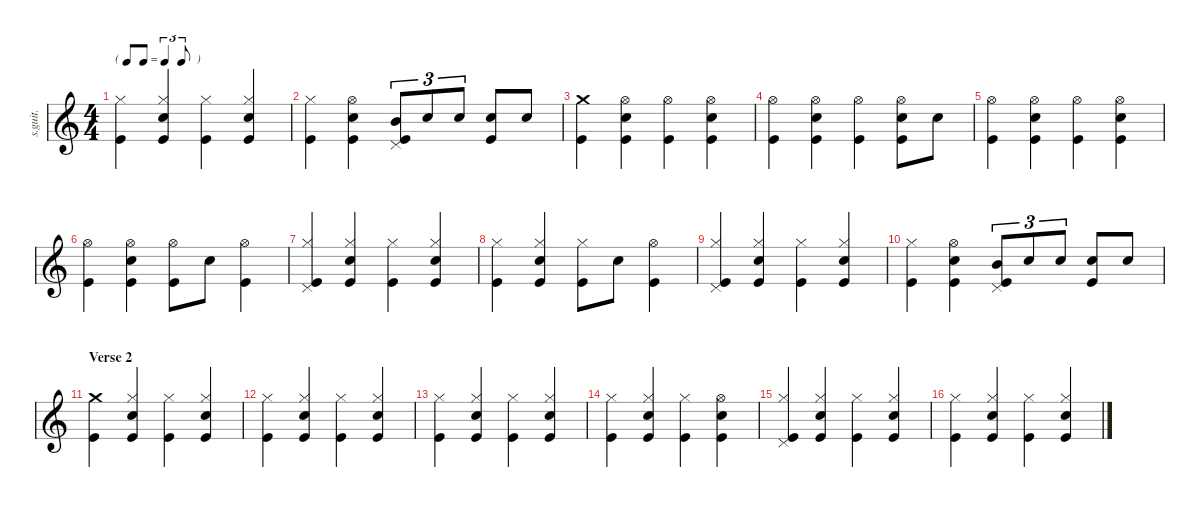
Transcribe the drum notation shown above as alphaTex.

\defaultSystemsLayout 4
\hideDynamics
\bracketExtendMode nobrackets
\track ("Dave Grohl" "s.guit.") {instrument percussion}
\staff {score}
\articulation defaults
\ts (4 4)
\tf triplet8th
\tempo (171 hide)
\clef g2
\ks c
("Kick (hit)" "Hi-Hat (closed)").4{lyrics (0 "") lyrics (1 "") lyrics (2 "") lyrics (3 "") lyrics (4 "") dy mf} ("Kick (hit)" "Snare (hit) 2" "Hi-Hat (closed)").4{lyrics (0 "") lyrics (1 "") lyrics (2 "") lyrics (3 "") lyrics (4 "")} ("Kick (hit)" "Hi-Hat (closed)").4{lyrics (0 "") lyrics (1 "") lyrics (2 "") lyrics (3 "") lyrics (4 "")} ("Kick (hit)" "Snare (hit) 2" "Hi-Hat (closed)").4{lyrics (0 "") lyrics (1 "") lyrics (2 "") lyrics (3 "") lyrics (4 "")} |
("Kick (hit)" "Hi-Hat (closed)").4{lyrics (0 "") lyrics (1 "") lyrics (2 "") lyrics (3 "") lyrics (4 "")} ("Kick (hit)" "Snare (hit) 2" "Hi-Hat (open)").4{lyrics (0 "") lyrics (1 "") lyrics (2 "") lyrics (3 "") lyrics (4 "")} ("Kick (hit)" "Pedal Hi-Hat (hit)" "Mid Tom (hit)").8{tu (3 2) lyrics (0 "") lyrics (1 "") lyrics (2 "") lyrics (3 "") lyrics (4 "")} "Snare (hit) 2".8{tu (3 2) lyrics (0 "") lyrics (1 "") lyrics (2 "") lyrics (3 "") lyrics (4 "")} "Snare (hit) 2".8{tu (3 2) lyrics (0 "") lyrics (1 "") lyrics (2 "") lyrics (3 "") lyrics (4 "")} ("Kick (hit)" "Snare (hit) 2").8{lyrics (0 "") lyrics (1 "") lyrics (2 "") lyrics (3 "") lyrics (4 "")} "Snare (hit) 2".8{lyrics (0 "") lyrics (1 "") lyrics (2 "") lyrics (3 "") lyrics (4 "")} |
("Kick (hit)" "Crash medium (hit)").4{lyrics (0 "") lyrics (1 "") lyrics (2 "") lyrics (3 "") lyrics (4 "")} ("Kick (hit)" "Snare (hit) 2" "Hi-Hat (open)").4{lyrics (0 "") lyrics (1 "") lyrics (2 "") lyrics (3 "") lyrics (4 "")} ("Kick (hit)" "Hi-Hat (open)").4{lyrics (0 "") lyrics (1 "") lyrics (2 "") lyrics (3 "") lyrics (4 "")} ("Kick (hit)" "Snare (hit) 2" "Hi-Hat (open)").4{lyrics (0 "") lyrics (1 "") lyrics (2 "") lyrics (3 "") lyrics (4 "")} |
("Kick (hit)" "Hi-Hat (open)").4{lyrics (0 "") lyrics (1 "") lyrics (2 "") lyrics (3 "") lyrics (4 "")} ("Kick (hit)" "Snare (hit) 2" "Hi-Hat (open)").4{lyrics (0 "") lyrics (1 "") lyrics (2 "") lyrics (3 "") lyrics (4 "")} ("Kick (hit)" "Hi-Hat (open)").4{lyrics (0 "") lyrics (1 "") lyrics (2 "") lyrics (3 "") lyrics (4 "")} ("Kick (hit)" "Snare (hit) 2" "Hi-Hat (open)").8{lyrics (0 "") lyrics (1 "") lyrics (2 "") lyrics (3 "") lyrics (4 "")} "Snare (hit) 2".8{lyrics (0 "") lyrics (1 "") lyrics (2 "") lyrics (3 "") lyrics (4 "")} |
("Kick (hit)" "Hi-Hat (open)").4{lyrics (0 "") lyrics (1 "") lyrics (2 "") lyrics (3 "") lyrics (4 "")} ("Kick (hit)" "Snare (hit) 2" "Hi-Hat (open)").4{lyrics (0 "") lyrics (1 "") lyrics (2 "") lyrics (3 "") lyrics (4 "")} ("Kick (hit)" "Hi-Hat (open)").4{lyrics (0 "") lyrics (1 "") lyrics (2 "") lyrics (3 "") lyrics (4 "")} ("Kick (hit)" "Snare (hit) 2" "Hi-Hat (open)").4{lyrics (0 "") lyrics (1 "") lyrics (2 "") lyrics (3 "") lyrics (4 "")} |
("Kick (hit)" "Hi-Hat (open)").4{lyrics (0 "") lyrics (1 "") lyrics (2 "") lyrics (3 "") lyrics (4 "")} ("Kick (hit)" "Snare (hit) 2" "Hi-Hat (open)").4{lyrics (0 "") lyrics (1 "") lyrics (2 "") lyrics (3 "") lyrics (4 "")} ("Kick (hit)" "Hi-Hat (open)").8{lyrics (0 "") lyrics (1 "") lyrics (2 "") lyrics (3 "") lyrics (4 "")} "Snare (hit) 2".8{lyrics (0 "") lyrics (1 "") lyrics (2 "") lyrics (3 "") lyrics (4 "")} ("Kick (hit)" "Hi-Hat (open)").4{lyrics (0 "") lyrics (1 "") lyrics (2 "") lyrics (3 "") lyrics (4 "")} |
("Kick (hit)" "Hi-Hat (closed)" "Pedal Hi-Hat (hit)").4{lyrics (0 "") lyrics (1 "") lyrics (2 "") lyrics (3 "") lyrics (4 "")} ("Kick (hit)" "Snare (hit) 2" "Hi-Hat (closed)").4{lyrics (0 "") lyrics (1 "") lyrics (2 "") lyrics (3 "") lyrics (4 "")} ("Kick (hit)" "Hi-Hat (closed)").4{lyrics (0 "") lyrics (1 "") lyrics (2 "") lyrics (3 "") lyrics (4 "")} ("Kick (hit)" "Snare (hit) 2" "Hi-Hat (closed)").4{lyrics (0 "") lyrics (1 "") lyrics (2 "") lyrics (3 "") lyrics (4 "")} |
("Kick (hit)" "Hi-Hat (closed)").4{lyrics (0 "") lyrics (1 "") lyrics (2 "") lyrics (3 "") lyrics (4 "")} ("Kick (hit)" "Snare (hit) 2" "Hi-Hat (closed)").4{lyrics (0 "") lyrics (1 "") lyrics (2 "") lyrics (3 "") lyrics (4 "")} ("Kick (hit)" "Hi-Hat (closed)").8{lyrics (0 "") lyrics (1 "") lyrics (2 "") lyrics (3 "") lyrics (4 "")} "Snare (hit) 2".8{lyrics (0 "") lyrics (1 "") lyrics (2 "") lyrics (3 "") lyrics (4 "")} ("Kick (hit)" "Hi-Hat (open)").4{lyrics (0 "") lyrics (1 "") lyrics (2 "") lyrics (3 "") lyrics (4 "")} |
("Kick (hit)" "Hi-Hat (closed)" "Pedal Hi-Hat (hit)").4{lyrics (0 "") lyrics (1 "") lyrics (2 "") lyrics (3 "") lyrics (4 "")} ("Kick (hit)" "Snare (hit) 2" "Hi-Hat (closed)").4{lyrics (0 "") lyrics (1 "") lyrics (2 "") lyrics (3 "") lyrics (4 "")} ("Kick (hit)" "Hi-Hat (closed)").4{lyrics (0 "") lyrics (1 "") lyrics (2 "") lyrics (3 "") lyrics (4 "")} ("Kick (hit)" "Snare (hit) 2" "Hi-Hat (closed)").4{lyrics (0 "") lyrics (1 "") lyrics (2 "") lyrics (3 "") lyrics (4 "")} |
("Kick (hit)" "Hi-Hat (closed)").4{lyrics (0 "") lyrics (1 "") lyrics (2 "") lyrics (3 "") lyrics (4 "")} ("Kick (hit)" "Snare (hit) 2" "Hi-Hat (open)").4{lyrics (0 "") lyrics (1 "") lyrics (2 "") lyrics (3 "") lyrics (4 "")} ("Kick (hit)" "Pedal Hi-Hat (hit)" "Mid Tom (hit)").8{tu (3 2) lyrics (0 "") lyrics (1 "") lyrics (2 "") lyrics (3 "") lyrics (4 "")} "Snare (hit) 2".8{tu (3 2) lyrics (0 "") lyrics (1 "") lyrics (2 "") lyrics (3 "") lyrics (4 "")} "Snare (hit) 2".8{tu (3 2) lyrics (0 "") lyrics (1 "") lyrics (2 "") lyrics (3 "") lyrics (4 "")} ("Kick (hit)" "Snare (hit) 2").8{lyrics (0 "") lyrics (1 "") lyrics (2 "") lyrics (3 "") lyrics (4 "")} "Snare (hit) 2".8{lyrics (0 "") lyrics (1 "") lyrics (2 "") lyrics (3 "") lyrics (4 "")} |
\section ("" "Verse 2")
("Kick (hit)" "Crash medium (hit)").4{lyrics (0 "") lyrics (1 "") lyrics (2 "") lyrics (3 "") lyrics (4 "")} ("Kick (hit)" "Snare (hit) 2" "Hi-Hat (closed)").4{lyrics (0 "") lyrics (1 "") lyrics (2 "") lyrics (3 "") lyrics (4 "")} ("Kick (hit)" "Hi-Hat (closed)").4{lyrics (0 "") lyrics (1 "") lyrics (2 "") lyrics (3 "") lyrics (4 "")} ("Kick (hit)" "Snare (hit) 2" "Hi-Hat (closed)").4{lyrics (0 "") lyrics (1 "") lyrics (2 "") lyrics (3 "") lyrics (4 "")} |
("Kick (hit)" "Hi-Hat (closed)").4{lyrics (0 "") lyrics (1 "") lyrics (2 "") lyrics (3 "") lyrics (4 "")} ("Kick (hit)" "Snare (hit) 2" "Hi-Hat (closed)").4{lyrics (0 "") lyrics (1 "") lyrics (2 "") lyrics (3 "") lyrics (4 "")} ("Kick (hit)" "Hi-Hat (closed)").4{lyrics (0 "") lyrics (1 "") lyrics (2 "") lyrics (3 "") lyrics (4 "")} ("Kick (hit)" "Snare (hit) 2" "Hi-Hat (closed)").4{lyrics (0 "") lyrics (1 "") lyrics (2 "") lyrics (3 "") lyrics (4 "")} |
("Kick (hit)" "Hi-Hat (closed)").4{lyrics (0 "") lyrics (1 "") lyrics (2 "") lyrics (3 "") lyrics (4 "")} ("Kick (hit)" "Snare (hit) 2" "Hi-Hat (closed)").4{lyrics (0 "") lyrics (1 "") lyrics (2 "") lyrics (3 "") lyrics (4 "")} ("Kick (hit)" "Hi-Hat (closed)").4{lyrics (0 "") lyrics (1 "") lyrics (2 "") lyrics (3 "") lyrics (4 "")} ("Kick (hit)" "Snare (hit) 2" "Hi-Hat (closed)").4{lyrics (0 "") lyrics (1 "") lyrics (2 "") lyrics (3 "") lyrics (4 "")} |
("Kick (hit)" "Hi-Hat (closed)").4{lyrics (0 "") lyrics (1 "") lyrics (2 "") lyrics (3 "") lyrics (4 "")} ("Kick (hit)" "Snare (hit) 2" "Hi-Hat (closed)").4{lyrics (0 "") lyrics (1 "") lyrics (2 "") lyrics (3 "") lyrics (4 "")} ("Kick (hit)" "Hi-Hat (closed)").4{lyrics (0 "") lyrics (1 "") lyrics (2 "") lyrics (3 "") lyrics (4 "")} ("Kick (hit)" "Snare (hit) 2" "Hi-Hat (open)").4{lyrics (0 "") lyrics (1 "") lyrics (2 "") lyrics (3 "") lyrics (4 "")} |
("Kick (hit)" "Hi-Hat (closed)" "Pedal Hi-Hat (hit)").4{lyrics (0 "") lyrics (1 "") lyrics (2 "") lyrics (3 "") lyrics (4 "")} ("Kick (hit)" "Snare (hit) 2" "Hi-Hat (closed)").4{lyrics (0 "") lyrics (1 "") lyrics (2 "") lyrics (3 "") lyrics (4 "")} ("Kick (hit)" "Hi-Hat (closed)").4{lyrics (0 "") lyrics (1 "") lyrics (2 "") lyrics (3 "") lyrics (4 "")} ("Kick (hit)" "Snare (hit) 2" "Hi-Hat (closed)").4{lyrics (0 "") lyrics (1 "") lyrics (2 "") lyrics (3 "") lyrics (4 "")} |
("Kick (hit)" "Hi-Hat (closed)").4{lyrics (0 "") lyrics (1 "") lyrics (2 "") lyrics (3 "") lyrics (4 "")} ("Kick (hit)" "Snare (hit) 2" "Hi-Hat (closed)").4{lyrics (0 "") lyrics (1 "") lyrics (2 "") lyrics (3 "") lyrics (4 "")} ("Kick (hit)" "Hi-Hat (closed)").4{lyrics (0 "") lyrics (1 "") lyrics (2 "") lyrics (3 "") lyrics (4 "")} ("Kick (hit)" "Snare (hit) 2" "Hi-Hat (closed)").4{lyrics (0 "") lyrics (1 "") lyrics (2 "") lyrics (3 "") lyrics (4 "")}
